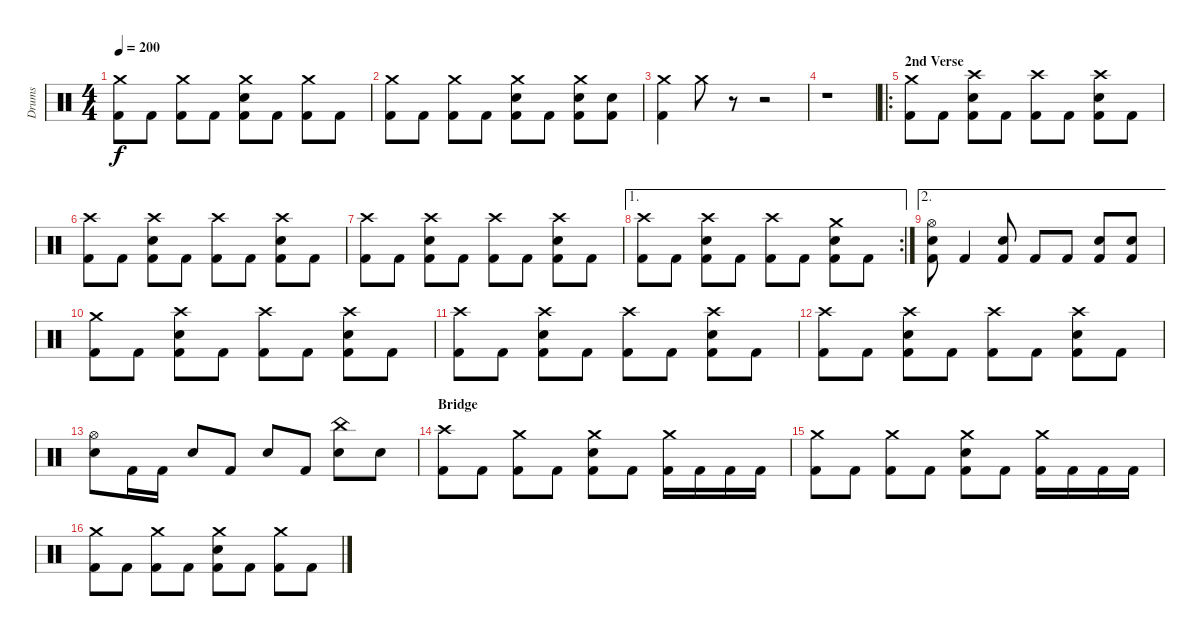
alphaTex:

\track ("Drums" "Drums") {instrument percussion}
\staff {score}
\articulation defaults
\ts (4 4)
\tempo 200
\clef neutral
\ks c
("Crash medium (hit)" "Kick (hit) 2").8{dy f} "Kick (hit) 2".8 ("Crash medium (hit)" "Kick (hit) 2").8 "Kick (hit) 2".8 ("Crash medium (hit)" "Electric Snare (hit)" "Kick (hit) 2").8 "Kick (hit) 2".8 ("Crash medium (hit)" "Kick (hit) 2").8 "Kick (hit) 2".8 |
("Crash medium (hit)" "Kick (hit) 2").8 "Kick (hit) 2".8 ("Crash medium (hit)" "Kick (hit) 2").8 "Kick (hit) 2".8 ("Crash medium (hit)" "Electric Snare (hit)" "Kick (hit) 2").8 "Kick (hit) 2".8 ("Crash medium (hit)" "Electric Snare (hit)" "Kick (hit) 2").8 ("Electric Snare (hit)" "Kick (hit) 2").8 |
("Crash medium (hit)" "Kick (hit) 2").4 "Crash medium (hit)".8 r.8 r.2 |
r.1 |
\ro
\section ("" "2nd Verse")
("Crash medium (hit)" "Kick (hit) 2").8 "Kick (hit) 2".8 ("Crash high (hit)" "Electric Snare (hit)" "Kick (hit) 2").8 "Kick (hit) 2".8 ("Crash high (hit)" "Kick (hit) 2").8 "Kick (hit) 2".8 ("Crash high (hit)" "Electric Snare (hit)" "Kick (hit) 2").8 "Kick (hit) 2".8 |
("Crash high (hit)" "Kick (hit) 2").8 "Kick (hit) 2".8 ("Crash high (hit)" "Electric Snare (hit)" "Kick (hit) 2").8 "Kick (hit) 2".8 ("Crash high (hit)" "Kick (hit) 2").8 "Kick (hit) 2".8 ("Crash high (hit)" "Electric Snare (hit)" "Kick (hit) 2").8 "Kick (hit) 2".8 |
("Crash high (hit)" "Kick (hit) 2").8 "Kick (hit) 2".8 ("Crash high (hit)" "Electric Snare (hit)" "Kick (hit) 2").8 "Kick (hit) 2".8 ("Crash high (hit)" "Kick (hit) 2").8 "Kick (hit) 2".8 ("Crash high (hit)" "Electric Snare (hit)" "Kick (hit) 2").8 "Kick (hit) 2".8 |
\ae 1
\rc 2
("Crash high (hit)" "Kick (hit) 2").8 "Kick (hit) 2".8 ("Crash high (hit)" "Electric Snare (hit)" "Kick (hit) 2").8 "Kick (hit) 2".8 ("Crash high (hit)" "Kick (hit) 2").8 "Kick (hit) 2".8 ("Crash medium (hit)" "Electric Snare (hit)" "Kick (hit) 2").8 "Kick (hit) 2".8 |
\ae 2
("Hi-Hat (open)" "Electric Snare (hit)" "Kick (hit) 2").8 "Kick (hit) 2".4 ("Electric Snare (hit)" "Kick (hit) 2").8 "Kick (hit) 2".8 "Kick (hit) 2".8 ("Electric Snare (hit)" "Kick (hit) 2").8 ("Electric Snare (hit)" "Kick (hit) 2").8 |
("Crash medium (hit)" "Kick (hit) 2").8 "Kick (hit) 2".8 ("Crash high (hit)" "Electric Snare (hit)" "Kick (hit) 2").8 "Kick (hit) 2".8 ("Crash high (hit)" "Kick (hit) 2").8 "Kick (hit) 2".8 ("Crash high (hit)" "Electric Snare (hit)" "Kick (hit) 2").8 "Kick (hit) 2".8 |
("Crash high (hit)" "Kick (hit) 2").8 "Kick (hit) 2".8 ("Crash high (hit)" "Electric Snare (hit)" "Kick (hit) 2").8 "Kick (hit) 2".8 ("Crash high (hit)" "Kick (hit) 2").8 "Kick (hit) 2".8 ("Crash high (hit)" "Electric Snare (hit)" "Kick (hit) 2").8 "Kick (hit) 2".8 |
("Crash high (hit)" "Kick (hit) 2").8 "Kick (hit) 2".8 ("Crash high (hit)" "Electric Snare (hit)" "Kick (hit) 2").8 "Kick (hit) 2".8 ("Crash high (hit)" "Kick (hit) 2").8 "Kick (hit) 2".8 ("Crash high (hit)" "Electric Snare (hit)" "Kick (hit) 2").8 "Kick (hit) 2".8 |
("Hi-Hat (open)" "Electric Snare (hit)").8 "Kick (hit) 2".16 "Kick (hit) 2".16 "Electric Snare (hit)".8 "Kick (hit) 2".8 "Electric Snare (hit)".8 "Kick (hit) 2".8 ("China (hit)" "Electric Snare (hit)").8 "Electric Snare (hit)".8 |
\section ("" "Bridge")
("Crash high (hit)" "Kick (hit) 2").8 "Kick (hit) 2".8 ("Crash medium (hit)" "Kick (hit) 2").8 "Kick (hit) 2".8 ("Crash medium (hit)" "Electric Snare (hit)" "Kick (hit) 2").8 "Kick (hit) 2".8 ("Crash medium (hit)" "Kick (hit) 2").16 "Kick (hit) 2".16 "Kick (hit) 2".16 "Kick (hit) 2".16 |
("Crash medium (hit)" "Kick (hit) 2").8 "Kick (hit) 2".8 ("Crash medium (hit)" "Kick (hit) 2").8 "Kick (hit) 2".8 ("Crash medium (hit)" "Electric Snare (hit)" "Kick (hit) 2").8 "Kick (hit) 2".8 ("Crash medium (hit)" "Kick (hit) 2").16 "Kick (hit) 2".16 "Kick (hit) 2".16 "Kick (hit) 2".16 |
("Crash medium (hit)" "Kick (hit) 2").8 "Kick (hit) 2".8 ("Crash medium (hit)" "Kick (hit) 2").8 "Kick (hit) 2".8 ("Crash medium (hit)" "Electric Snare (hit)" "Kick (hit) 2").8 "Kick (hit) 2".8 ("Crash medium (hit)" "Kick (hit) 2").8 "Kick (hit) 2".8
